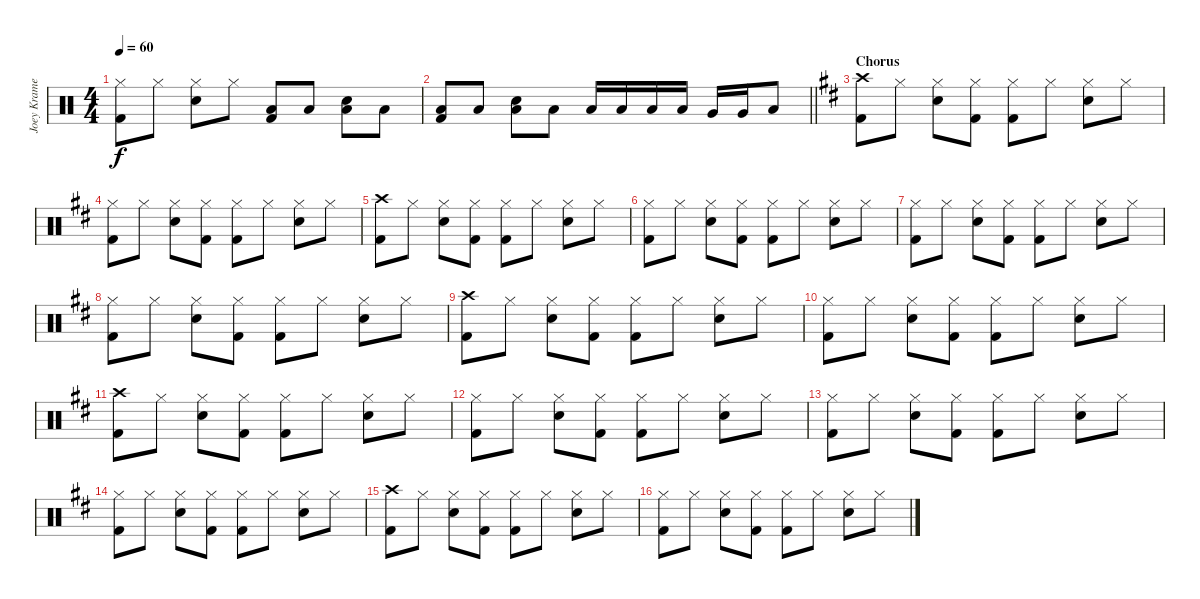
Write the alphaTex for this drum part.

\track ("Joey Kramer" "Joey Krame") {instrument percussion}
\staff {score}
\articulation defaults
\ts (4 4)
\tempo 60
\clef neutral
\ks c
("Hi-Hat (closed)" "Kick (hit) 2").8{dy f} "Hi-Hat (closed)".8 ("Hi-Hat (closed)" "Electric Snare (hit)").8 "Hi-Hat (closed)".8 ("Low Floor Tom (hit)" "Kick (hit) 2").8 "Low Floor Tom (hit)".8 ("Electric Snare (hit)" "Low Floor Tom (hit)").8 "Low Floor Tom (hit)".8 |
\barLineRight lightlight
("Low Floor Tom (hit)" "Kick (hit) 2").8 "Low Floor Tom (hit)".8 ("Electric Snare (hit)" "Low Floor Tom (hit)").8 "Low Floor Tom (hit)".8 "Low Floor Tom (hit)".16 "Low Floor Tom (hit)".16 "Low Floor Tom (hit)".16 "Low Floor Tom (hit)".16 "Very Low Tom (hit)".16 "Very Low Tom (hit)".16 "Low Floor Tom (hit)".8 |
\section ("" "Chorus")
\ks d
("Crash high (hit)" "Kick (hit) 2").8 "Hi-Hat (closed)".8 ("Hi-Hat (closed)" "Electric Snare (hit)").8 ("Hi-Hat (closed)" "Kick (hit) 2").8 ("Hi-Hat (closed)" "Kick (hit) 2").8 "Hi-Hat (closed)".8 ("Hi-Hat (closed)" "Electric Snare (hit)").8 "Hi-Hat (closed)".8 |
("Hi-Hat (closed)" "Kick (hit) 2").8 "Hi-Hat (closed)".8 ("Hi-Hat (closed)" "Electric Snare (hit)").8 ("Hi-Hat (closed)" "Kick (hit) 2").8 ("Hi-Hat (closed)" "Kick (hit) 2").8 "Hi-Hat (closed)".8 ("Hi-Hat (closed)" "Electric Snare (hit)").8 "Hi-Hat (closed)".8 |
("Crash high (hit)" "Kick (hit) 2").8 "Hi-Hat (closed)".8 ("Hi-Hat (closed)" "Electric Snare (hit)").8 ("Hi-Hat (closed)" "Kick (hit) 2").8 ("Hi-Hat (closed)" "Kick (hit) 2").8 "Hi-Hat (closed)".8 ("Hi-Hat (closed)" "Electric Snare (hit)").8 "Hi-Hat (closed)".8 |
("Hi-Hat (closed)" "Kick (hit) 2").8 "Hi-Hat (closed)".8 ("Hi-Hat (closed)" "Electric Snare (hit)").8 ("Hi-Hat (closed)" "Kick (hit) 2").8 ("Hi-Hat (closed)" "Kick (hit) 2").8 "Hi-Hat (closed)".8 ("Hi-Hat (closed)" "Electric Snare (hit)").8 "Hi-Hat (closed)".8 |
("Hi-Hat (closed)" "Kick (hit) 2").8 "Hi-Hat (closed)".8 ("Hi-Hat (closed)" "Electric Snare (hit)").8 ("Hi-Hat (closed)" "Kick (hit) 2").8 ("Hi-Hat (closed)" "Kick (hit) 2").8 "Hi-Hat (closed)".8 ("Hi-Hat (closed)" "Electric Snare (hit)").8 "Hi-Hat (closed)".8 |
("Hi-Hat (closed)" "Kick (hit) 2").8 "Hi-Hat (closed)".8 ("Hi-Hat (closed)" "Electric Snare (hit)").8 ("Hi-Hat (closed)" "Kick (hit) 2").8 ("Hi-Hat (closed)" "Kick (hit) 2").8 "Hi-Hat (closed)".8 ("Hi-Hat (closed)" "Electric Snare (hit)").8 "Hi-Hat (closed)".8 |
("Crash high (hit)" "Kick (hit) 2").8 "Hi-Hat (closed)".8 ("Hi-Hat (closed)" "Electric Snare (hit)").8 ("Hi-Hat (closed)" "Kick (hit) 2").8 ("Hi-Hat (closed)" "Kick (hit) 2").8 "Hi-Hat (closed)".8 ("Hi-Hat (closed)" "Electric Snare (hit)").8 "Hi-Hat (closed)".8 |
("Hi-Hat (closed)" "Kick (hit) 2").8 "Hi-Hat (closed)".8 ("Hi-Hat (closed)" "Electric Snare (hit)").8 ("Hi-Hat (closed)" "Kick (hit) 2").8 ("Hi-Hat (closed)" "Kick (hit) 2").8 "Hi-Hat (closed)".8 ("Hi-Hat (closed)" "Electric Snare (hit)").8 "Hi-Hat (closed)".8 |
("Crash high (hit)" "Kick (hit) 2").8 "Hi-Hat (closed)".8 ("Hi-Hat (closed)" "Electric Snare (hit)").8 ("Hi-Hat (closed)" "Kick (hit) 2").8 ("Hi-Hat (closed)" "Kick (hit) 2").8 "Hi-Hat (closed)".8 ("Hi-Hat (closed)" "Electric Snare (hit)").8 "Hi-Hat (closed)".8 |
("Hi-Hat (closed)" "Kick (hit) 2").8 "Hi-Hat (closed)".8 ("Hi-Hat (closed)" "Electric Snare (hit)").8 ("Hi-Hat (closed)" "Kick (hit) 2").8 ("Hi-Hat (closed)" "Kick (hit) 2").8 "Hi-Hat (closed)".8 ("Hi-Hat (closed)" "Electric Snare (hit)").8 "Hi-Hat (closed)".8 |
("Hi-Hat (closed)" "Kick (hit) 2").8 "Hi-Hat (closed)".8 ("Hi-Hat (closed)" "Electric Snare (hit)").8 ("Hi-Hat (closed)" "Kick (hit) 2").8 ("Hi-Hat (closed)" "Kick (hit) 2").8 "Hi-Hat (closed)".8 ("Hi-Hat (closed)" "Electric Snare (hit)").8 "Hi-Hat (closed)".8 |
("Hi-Hat (closed)" "Kick (hit) 2").8 "Hi-Hat (closed)".8 ("Hi-Hat (closed)" "Electric Snare (hit)").8 ("Hi-Hat (closed)" "Kick (hit) 2").8 ("Hi-Hat (closed)" "Kick (hit) 2").8 "Hi-Hat (closed)".8 ("Hi-Hat (closed)" "Electric Snare (hit)").8 "Hi-Hat (closed)".8 |
("Crash high (hit)" "Kick (hit) 2").8 "Hi-Hat (closed)".8 ("Hi-Hat (closed)" "Electric Snare (hit)").8 ("Hi-Hat (closed)" "Kick (hit) 2").8 ("Hi-Hat (closed)" "Kick (hit) 2").8 "Hi-Hat (closed)".8 ("Hi-Hat (closed)" "Electric Snare (hit)").8 "Hi-Hat (closed)".8 |
("Hi-Hat (closed)" "Kick (hit) 2").8 "Hi-Hat (closed)".8 ("Hi-Hat (closed)" "Electric Snare (hit)").8 ("Hi-Hat (closed)" "Kick (hit) 2").8 ("Hi-Hat (closed)" "Kick (hit) 2").8 "Hi-Hat (closed)".8 ("Hi-Hat (closed)" "Electric Snare (hit)").8 "Hi-Hat (closed)".8
